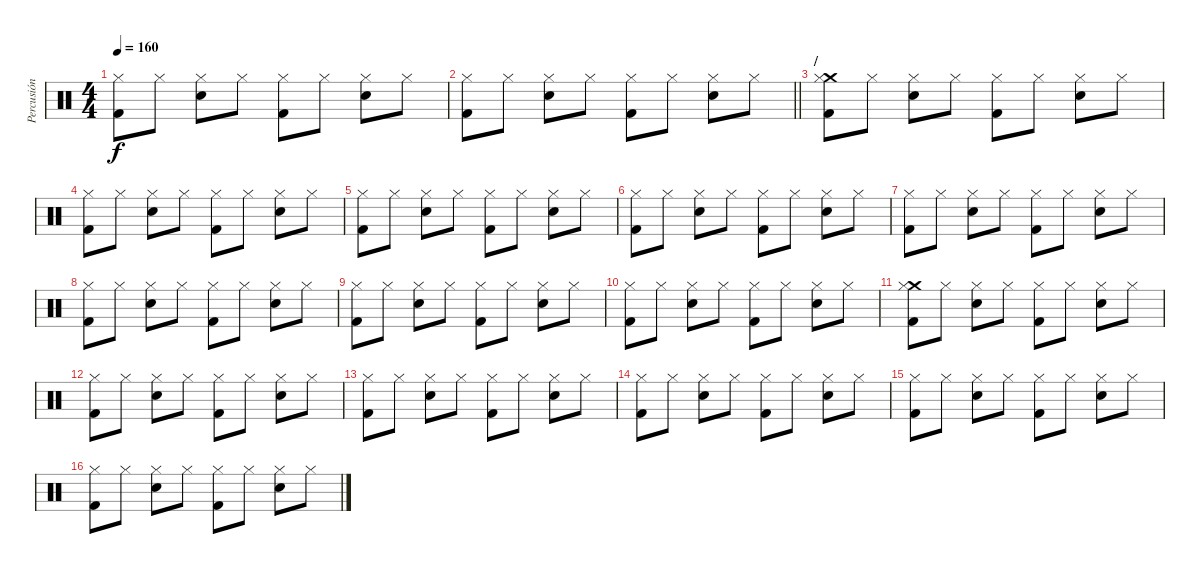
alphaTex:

\track ("Percusión" "Percusión") {instrument percussion}
\staff {score}
\articulation defaults
\ts (4 4)
\tempo 160
\clef neutral
\ks c
("Hi-Hat (closed)" "Kick (hit) 2").8{dy f} "Hi-Hat (closed)".8 ("Hi-Hat (closed)" "Snare (hit) 2").8 "Hi-Hat (closed)".8 ("Hi-Hat (closed)" "Kick (hit) 2").8 "Hi-Hat (closed)".8 ("Hi-Hat (closed)" "Snare (hit) 2").8 "Hi-Hat (closed)".8 |
\barLineRight lightlight
("Hi-Hat (closed)" "Kick (hit) 2").8 "Hi-Hat (closed)".8 ("Hi-Hat (closed)" "Snare (hit) 2").8 "Hi-Hat (closed)".8 ("Hi-Hat (closed)" "Kick (hit) 2").8 "Hi-Hat (closed)".8 ("Hi-Hat (closed)" "Snare (hit) 2").8 "Hi-Hat (closed)".8 |
\section ("" "/")
("Crash medium (hit)" "Hi-Hat (closed)" "Kick (hit) 2").8 "Hi-Hat (closed)".8 ("Hi-Hat (closed)" "Snare (hit) 2").8 "Hi-Hat (closed)".8 ("Hi-Hat (closed)" "Kick (hit) 2").8 "Hi-Hat (closed)".8 ("Hi-Hat (closed)" "Snare (hit) 2").8 "Hi-Hat (closed)".8 |
("Hi-Hat (closed)" "Kick (hit) 2").8 "Hi-Hat (closed)".8 ("Hi-Hat (closed)" "Snare (hit) 2").8 "Hi-Hat (closed)".8 ("Hi-Hat (closed)" "Kick (hit) 2").8 "Hi-Hat (closed)".8 ("Hi-Hat (closed)" "Snare (hit) 2").8 "Hi-Hat (closed)".8 |
("Hi-Hat (closed)" "Kick (hit) 2").8 "Hi-Hat (closed)".8 ("Hi-Hat (closed)" "Snare (hit) 2").8 "Hi-Hat (closed)".8 ("Hi-Hat (closed)" "Kick (hit) 2").8 "Hi-Hat (closed)".8 ("Hi-Hat (closed)" "Snare (hit) 2").8 "Hi-Hat (closed)".8 |
("Hi-Hat (closed)" "Kick (hit) 2").8 "Hi-Hat (closed)".8 ("Hi-Hat (closed)" "Snare (hit) 2").8 "Hi-Hat (closed)".8 ("Hi-Hat (closed)" "Kick (hit) 2").8 "Hi-Hat (closed)".8 ("Hi-Hat (closed)" "Snare (hit) 2").8 "Hi-Hat (closed)".8 |
("Hi-Hat (closed)" "Kick (hit) 2").8 "Hi-Hat (closed)".8 ("Hi-Hat (closed)" "Snare (hit) 2").8 "Hi-Hat (closed)".8 ("Hi-Hat (closed)" "Kick (hit) 2").8 "Hi-Hat (closed)".8 ("Hi-Hat (closed)" "Snare (hit) 2").8 "Hi-Hat (closed)".8 |
("Hi-Hat (closed)" "Kick (hit) 2").8 "Hi-Hat (closed)".8 ("Hi-Hat (closed)" "Snare (hit) 2").8 "Hi-Hat (closed)".8 ("Hi-Hat (closed)" "Kick (hit) 2").8 "Hi-Hat (closed)".8 ("Hi-Hat (closed)" "Snare (hit) 2").8 "Hi-Hat (closed)".8 |
("Hi-Hat (closed)" "Kick (hit) 2").8 "Hi-Hat (closed)".8 ("Hi-Hat (closed)" "Snare (hit) 2").8 "Hi-Hat (closed)".8 ("Hi-Hat (closed)" "Kick (hit) 2").8 "Hi-Hat (closed)".8 ("Hi-Hat (closed)" "Snare (hit) 2").8 "Hi-Hat (closed)".8 |
("Hi-Hat (closed)" "Kick (hit) 2").8 "Hi-Hat (closed)".8 ("Hi-Hat (closed)" "Snare (hit) 2").8 "Hi-Hat (closed)".8 ("Hi-Hat (closed)" "Kick (hit) 2").8 "Hi-Hat (closed)".8 ("Hi-Hat (closed)" "Snare (hit) 2").8 "Hi-Hat (closed)".8 |
("Crash medium (hit)" "Hi-Hat (closed)" "Kick (hit) 2").8 "Hi-Hat (closed)".8 ("Hi-Hat (closed)" "Snare (hit) 2").8 "Hi-Hat (closed)".8 ("Hi-Hat (closed)" "Kick (hit) 2").8 "Hi-Hat (closed)".8 ("Hi-Hat (closed)" "Snare (hit) 2").8 "Hi-Hat (closed)".8 |
("Hi-Hat (closed)" "Kick (hit) 2").8 "Hi-Hat (closed)".8 ("Hi-Hat (closed)" "Snare (hit) 2").8 "Hi-Hat (closed)".8 ("Hi-Hat (closed)" "Kick (hit) 2").8 "Hi-Hat (closed)".8 ("Hi-Hat (closed)" "Snare (hit) 2").8 "Hi-Hat (closed)".8 |
("Hi-Hat (closed)" "Kick (hit) 2").8 "Hi-Hat (closed)".8 ("Hi-Hat (closed)" "Snare (hit) 2").8 "Hi-Hat (closed)".8 ("Hi-Hat (closed)" "Kick (hit) 2").8 "Hi-Hat (closed)".8 ("Hi-Hat (closed)" "Snare (hit) 2").8 "Hi-Hat (closed)".8 |
("Hi-Hat (closed)" "Kick (hit) 2").8 "Hi-Hat (closed)".8 ("Hi-Hat (closed)" "Snare (hit) 2").8 "Hi-Hat (closed)".8 ("Hi-Hat (closed)" "Kick (hit) 2").8 "Hi-Hat (closed)".8 ("Hi-Hat (closed)" "Snare (hit) 2").8 "Hi-Hat (closed)".8 |
("Hi-Hat (closed)" "Kick (hit) 2").8 "Hi-Hat (closed)".8 ("Hi-Hat (closed)" "Snare (hit) 2").8 "Hi-Hat (closed)".8 ("Hi-Hat (closed)" "Kick (hit) 2").8 "Hi-Hat (closed)".8 ("Hi-Hat (closed)" "Snare (hit) 2").8 "Hi-Hat (closed)".8 |
("Hi-Hat (closed)" "Kick (hit) 2").8 "Hi-Hat (closed)".8 ("Hi-Hat (closed)" "Snare (hit) 2").8 "Hi-Hat (closed)".8 ("Hi-Hat (closed)" "Kick (hit) 2").8 "Hi-Hat (closed)".8 ("Hi-Hat (closed)" "Snare (hit) 2").8 "Hi-Hat (closed)".8
